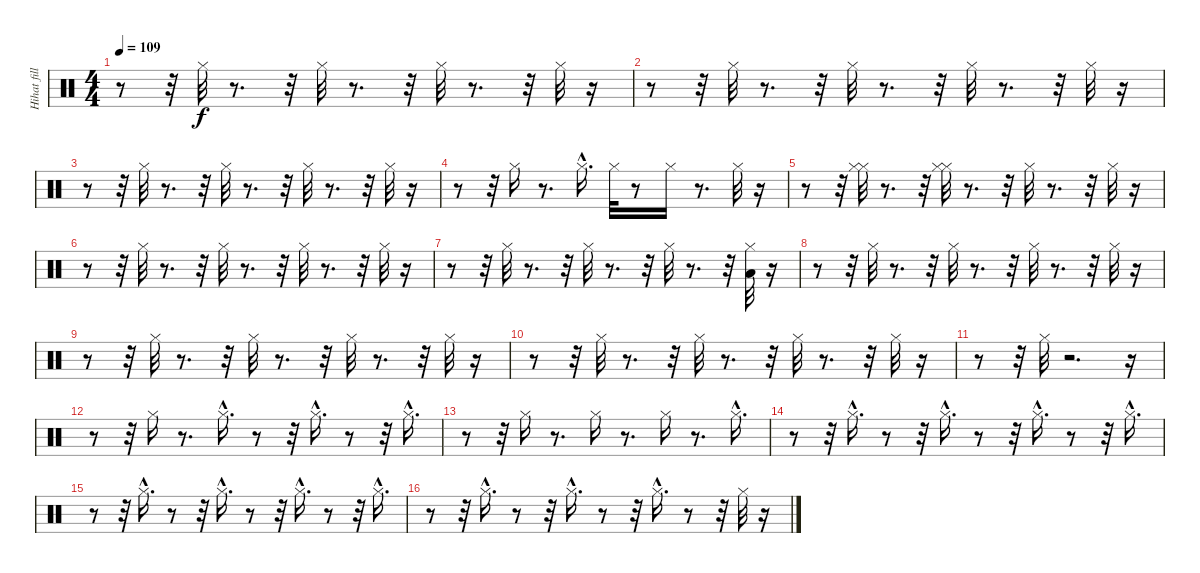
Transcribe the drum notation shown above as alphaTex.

\track ("Hihat fills     " "Hihat fill") {instrument percussion}
\staff {score}
\articulation defaults
\ts (4 4)
\tempo 109
\clef neutral
\ks c
r.8{dy f} r.32 "Hi-Hat (closed)".32 r.8{d} r.32 "Hi-Hat (closed)".32 r.8{d} r.32 "Hi-Hat (closed)".32 r.8{d} r.32 "Hi-Hat (closed)".32 r.16 |
r.8 r.32 "Hi-Hat (closed)".32 r.8{d} r.32 "Hi-Hat (closed)".32 r.8{d} r.32 "Hi-Hat (closed)".32 r.8{d} r.32 "Hi-Hat (closed)".32 r.16 |
r.8 r.32 "Hi-Hat (closed)".32 r.8{d} r.32 "Hi-Hat (closed)".32 r.8{d} r.32 "Hi-Hat (closed)".32 r.8{d} r.32 "Hi-Hat (closed)".32 r.16 |
r.8 r.32 "Hi-Hat (closed)".16 r.8{d} "Hi-Hat (closed)"{hac}.16{d} "Hi-Hat (closed)".32 r.8 "Hi-Hat (closed)".16 r.8{d} "Hi-Hat (closed)".32 r.16 |
r.8 r.32 ("Hi-Hat (closed)" "Hi-Hat (closed)").32 r.8{d} r.32 ("Hi-Hat (closed)" "Hi-Hat (closed)").32 r.8{d} r.32 "Hi-Hat (closed)".32 r.8{d} r.32 "Hi-Hat (closed)".32 r.16 |
r.8 r.32 "Hi-Hat (closed)".32 r.8{d} r.32 "Hi-Hat (closed)".32 r.8{d} r.32 "Hi-Hat (closed)".32 r.8{d} r.32 "Hi-Hat (closed)".32 r.16 |
r.8 r.32 "Hi-Hat (closed)".32 r.8{d} r.32 "Hi-Hat (closed)".32 r.8{d} r.32 "Hi-Hat (closed)".32 r.8{d} r.32 ("Hi-Hat (closed)" "Low Floor Tom (hit)").32 r.16 |
r.8 r.32 "Hi-Hat (closed)".32 r.8{d} r.32 "Hi-Hat (closed)".32 r.8{d} r.32 "Hi-Hat (closed)".32 r.8{d} r.32 "Hi-Hat (closed)".32 r.16 |
r.8 r.32 "Hi-Hat (closed)".32 r.8{d} r.32 "Hi-Hat (closed)".32 r.8{d} r.32 "Hi-Hat (closed)".32 r.8{d} r.32 "Hi-Hat (closed)".32 r.16 |
r.8 r.32 "Hi-Hat (closed)".32 r.8{d} r.32 "Hi-Hat (closed)".32 r.8{d} r.32 "Hi-Hat (closed)".32 r.8{d} r.32 "Hi-Hat (closed)".32 r.16 |
r.8 r.32 "Hi-Hat (closed)".32 r.2{d} r.16 |
r.8 r.32 "Hi-Hat (closed)".16 r.8{d} "Hi-Hat (closed)"{hac}.16{d} r.8 r.32 "Hi-Hat (closed)"{hac}.16{d} r.8 r.32 "Hi-Hat (closed)"{hac}.16{d} |
r.8 r.32 "Hi-Hat (closed)".16 r.8{d} "Hi-Hat (closed)".16 r.8{d} "Hi-Hat (closed)".16 r.8{d} "Hi-Hat (closed)"{hac}.16{d} |
r.8 r.32 "Hi-Hat (closed)"{hac}.16{d} r.8 r.32 "Hi-Hat (closed)"{hac}.16{d} r.8 r.32 "Hi-Hat (closed)"{hac}.16{d} r.8 r.32 "Hi-Hat (closed)"{hac}.16{d} |
r.8 r.32 "Hi-Hat (closed)"{hac}.16{d} r.8 r.32 "Hi-Hat (closed)"{hac}.16{d} r.8 r.32 "Hi-Hat (closed)"{hac}.16{d} r.8 r.32 "Hi-Hat (closed)"{hac}.16{d} |
r.8 r.32 "Hi-Hat (closed)"{hac}.16{d} r.8 r.32 "Hi-Hat (closed)"{hac}.16{d} r.8 r.32 "Hi-Hat (closed)"{hac}.16{d} r.8 r.32 "Hi-Hat (closed)".32 r.16
